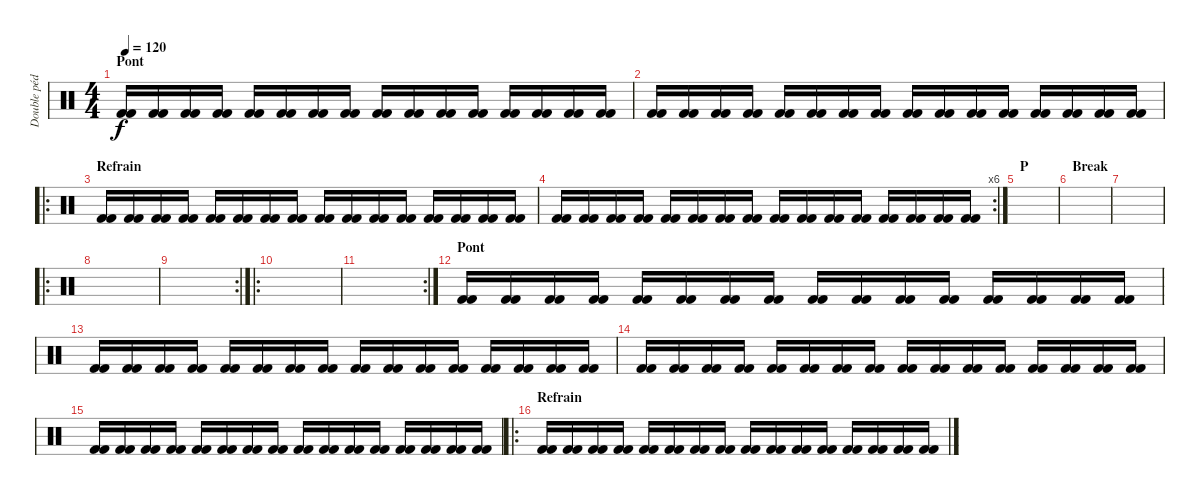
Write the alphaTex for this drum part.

\track ("Double pédales" "Double péd") {instrument percussion}
\staff {score}
\articulation defaults
\ts (4 4)
\section ("" "Pont")
\tempo 120
\clef neutral
\ks c
("Kick (hit) 2" "Kick (hit) 2").16{dy f} ("Kick (hit) 2" "Kick (hit) 2").16 ("Kick (hit) 2" "Kick (hit) 2").16 ("Kick (hit) 2" "Kick (hit) 2").16 ("Kick (hit) 2" "Kick (hit) 2").16 ("Kick (hit) 2" "Kick (hit) 2").16 ("Kick (hit) 2" "Kick (hit) 2").16 ("Kick (hit) 2" "Kick (hit) 2").16 ("Kick (hit) 2" "Kick (hit) 2").16 ("Kick (hit) 2" "Kick (hit) 2").16 ("Kick (hit) 2" "Kick (hit) 2").16 ("Kick (hit) 2" "Kick (hit) 2").16 ("Kick (hit) 2" "Kick (hit) 2").16 ("Kick (hit) 2" "Kick (hit) 2").16 ("Kick (hit) 2" "Kick (hit) 2").16 ("Kick (hit) 2" "Kick (hit) 2").16 |
("Kick (hit) 2" "Kick (hit) 2").16 ("Kick (hit) 2" "Kick (hit) 2").16 ("Kick (hit) 2" "Kick (hit) 2").16 ("Kick (hit) 2" "Kick (hit) 2").16 ("Kick (hit) 2" "Kick (hit) 2").16 ("Kick (hit) 2" "Kick (hit) 2").16 ("Kick (hit) 2" "Kick (hit) 2").16 ("Kick (hit) 2" "Kick (hit) 2").16 ("Kick (hit) 2" "Kick (hit) 2").16 ("Kick (hit) 2" "Kick (hit) 2").16 ("Kick (hit) 2" "Kick (hit) 2").16 ("Kick (hit) 2" "Kick (hit) 2").16 ("Kick (hit) 2" "Kick (hit) 2").16 ("Kick (hit) 2" "Kick (hit) 2").16 ("Kick (hit) 2" "Kick (hit) 2").16 ("Kick (hit) 2" "Kick (hit) 2").16 |
\ro
\section ("" "Refrain")
("Kick (hit) 2" "Kick (hit) 2").16 ("Kick (hit) 2" "Kick (hit) 2").16 ("Kick (hit) 2" "Kick (hit) 2").16 ("Kick (hit) 2" "Kick (hit) 2").16 ("Kick (hit) 2" "Kick (hit) 2").16 ("Kick (hit) 2" "Kick (hit) 2").16 ("Kick (hit) 2" "Kick (hit) 2").16 ("Kick (hit) 2" "Kick (hit) 2").16 ("Kick (hit) 2" "Kick (hit) 2").16 ("Kick (hit) 2" "Kick (hit) 2").16 ("Kick (hit) 2" "Kick (hit) 2").16 ("Kick (hit) 2" "Kick (hit) 2").16 ("Kick (hit) 2" "Kick (hit) 2").16 ("Kick (hit) 2" "Kick (hit) 2").16 ("Kick (hit) 2" "Kick (hit) 2").16 ("Kick (hit) 2" "Kick (hit) 2").16 |
\rc 6
("Kick (hit) 2" "Kick (hit) 2").16 ("Kick (hit) 2" "Kick (hit) 2").16 ("Kick (hit) 2" "Kick (hit) 2").16 ("Kick (hit) 2" "Kick (hit) 2").16 ("Kick (hit) 2" "Kick (hit) 2").16 ("Kick (hit) 2" "Kick (hit) 2").16 ("Kick (hit) 2" "Kick (hit) 2").16 ("Kick (hit) 2" "Kick (hit) 2").16 ("Kick (hit) 2" "Kick (hit) 2").16 ("Kick (hit) 2" "Kick (hit) 2").16 ("Kick (hit) 2" "Kick (hit) 2").16 ("Kick (hit) 2" "Kick (hit) 2").16 ("Kick (hit) 2" "Kick (hit) 2").16 ("Kick (hit) 2" "Kick (hit) 2").16 ("Kick (hit) 2" "Kick (hit) 2").16 ("Kick (hit) 2" "Kick (hit) 2").16 |
\section ("" "P")
|
\section ("" "Break")
|
|
\ro
|
\rc 2
|
\ro
|
\rc 2
|
\section ("" "Pont")
("Kick (hit) 2" "Kick (hit) 2").16 ("Kick (hit) 2" "Kick (hit) 2").16 ("Kick (hit) 2" "Kick (hit) 2").16 ("Kick (hit) 2" "Kick (hit) 2").16 ("Kick (hit) 2" "Kick (hit) 2").16 ("Kick (hit) 2" "Kick (hit) 2").16 ("Kick (hit) 2" "Kick (hit) 2").16 ("Kick (hit) 2" "Kick (hit) 2").16 ("Kick (hit) 2" "Kick (hit) 2").16 ("Kick (hit) 2" "Kick (hit) 2").16 ("Kick (hit) 2" "Kick (hit) 2").16 ("Kick (hit) 2" "Kick (hit) 2").16 ("Kick (hit) 2" "Kick (hit) 2").16 ("Kick (hit) 2" "Kick (hit) 2").16 ("Kick (hit) 2" "Kick (hit) 2").16 ("Kick (hit) 2" "Kick (hit) 2").16 |
("Kick (hit) 2" "Kick (hit) 2").16 ("Kick (hit) 2" "Kick (hit) 2").16 ("Kick (hit) 2" "Kick (hit) 2").16 ("Kick (hit) 2" "Kick (hit) 2").16 ("Kick (hit) 2" "Kick (hit) 2").16 ("Kick (hit) 2" "Kick (hit) 2").16 ("Kick (hit) 2" "Kick (hit) 2").16 ("Kick (hit) 2" "Kick (hit) 2").16 ("Kick (hit) 2" "Kick (hit) 2").16 ("Kick (hit) 2" "Kick (hit) 2").16 ("Kick (hit) 2" "Kick (hit) 2").16 ("Kick (hit) 2" "Kick (hit) 2").16 ("Kick (hit) 2" "Kick (hit) 2").16 ("Kick (hit) 2" "Kick (hit) 2").16 ("Kick (hit) 2" "Kick (hit) 2").16 ("Kick (hit) 2" "Kick (hit) 2").16 |
("Kick (hit) 2" "Kick (hit) 2").16 ("Kick (hit) 2" "Kick (hit) 2").16 ("Kick (hit) 2" "Kick (hit) 2").16 ("Kick (hit) 2" "Kick (hit) 2").16 ("Kick (hit) 2" "Kick (hit) 2").16 ("Kick (hit) 2" "Kick (hit) 2").16 ("Kick (hit) 2" "Kick (hit) 2").16 ("Kick (hit) 2" "Kick (hit) 2").16 ("Kick (hit) 2" "Kick (hit) 2").16 ("Kick (hit) 2" "Kick (hit) 2").16 ("Kick (hit) 2" "Kick (hit) 2").16 ("Kick (hit) 2" "Kick (hit) 2").16 ("Kick (hit) 2" "Kick (hit) 2").16 ("Kick (hit) 2" "Kick (hit) 2").16 ("Kick (hit) 2" "Kick (hit) 2").16 ("Kick (hit) 2" "Kick (hit) 2").16 |
("Kick (hit) 2" "Kick (hit) 2").16 ("Kick (hit) 2" "Kick (hit) 2").16 ("Kick (hit) 2" "Kick (hit) 2").16 ("Kick (hit) 2" "Kick (hit) 2").16 ("Kick (hit) 2" "Kick (hit) 2").16 ("Kick (hit) 2" "Kick (hit) 2").16 ("Kick (hit) 2" "Kick (hit) 2").16 ("Kick (hit) 2" "Kick (hit) 2").16 ("Kick (hit) 2" "Kick (hit) 2").16 ("Kick (hit) 2" "Kick (hit) 2").16 ("Kick (hit) 2" "Kick (hit) 2").16 ("Kick (hit) 2" "Kick (hit) 2").16 ("Kick (hit) 2" "Kick (hit) 2").16 ("Kick (hit) 2" "Kick (hit) 2").16 ("Kick (hit) 2" "Kick (hit) 2").16 ("Kick (hit) 2" "Kick (hit) 2").16 |
\ro
\section ("" "Refrain")
("Kick (hit) 2" "Kick (hit) 2").16 ("Kick (hit) 2" "Kick (hit) 2").16 ("Kick (hit) 2" "Kick (hit) 2").16 ("Kick (hit) 2" "Kick (hit) 2").16 ("Kick (hit) 2" "Kick (hit) 2").16 ("Kick (hit) 2" "Kick (hit) 2").16 ("Kick (hit) 2" "Kick (hit) 2").16 ("Kick (hit) 2" "Kick (hit) 2").16 ("Kick (hit) 2" "Kick (hit) 2").16 ("Kick (hit) 2" "Kick (hit) 2").16 ("Kick (hit) 2" "Kick (hit) 2").16 ("Kick (hit) 2" "Kick (hit) 2").16 ("Kick (hit) 2" "Kick (hit) 2").16 ("Kick (hit) 2" "Kick (hit) 2").16 ("Kick (hit) 2" "Kick (hit) 2").16 ("Kick (hit) 2" "Kick (hit) 2").16
